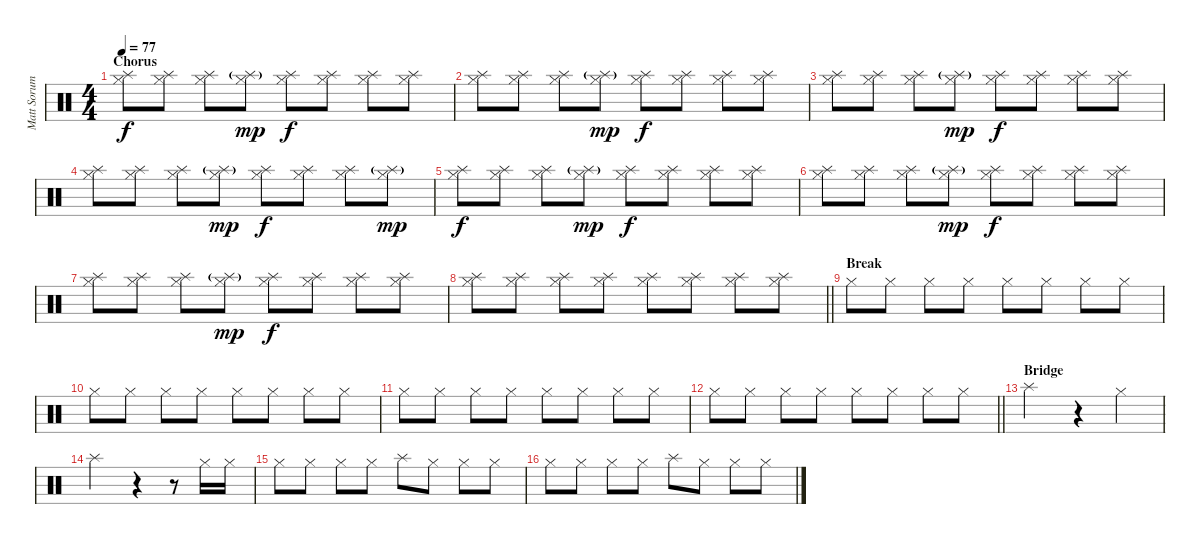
\track ("Matt Sorum (Drums)" "Matt Sorum") {instrument percussion}
\staff {score}
\articulation defaults
\ts (4 4)
\section ("" "Chorus")
\tempo 77
\clef neutral
\ks c
("Hi-Hat (closed)" "Splash (hit)").8{dy f} ("Hi-Hat (closed)" "Splash (hit)").8 ("Hi-Hat (closed)" "Splash (hit)").8 ("Hi-Hat (closed)" "Splash (hit)"{g}).8{dy mp} ("Hi-Hat (closed)" "Splash (hit)").8{dy f} ("Hi-Hat (closed)" "Splash (hit)").8 ("Hi-Hat (closed)" "Splash (hit)").8 ("Hi-Hat (closed)" "Splash (hit)").8 |
("Hi-Hat (closed)" "Splash (hit)").8 ("Hi-Hat (closed)" "Splash (hit)").8 ("Hi-Hat (closed)" "Splash (hit)").8 ("Hi-Hat (closed)" "Splash (hit)"{g}).8{dy mp} ("Hi-Hat (closed)" "Splash (hit)").8{dy f} ("Hi-Hat (closed)" "Splash (hit)").8 ("Hi-Hat (closed)" "Splash (hit)").8 ("Hi-Hat (closed)" "Splash (hit)").8 |
("Hi-Hat (closed)" "Splash (hit)").8 ("Hi-Hat (closed)" "Splash (hit)").8 ("Hi-Hat (closed)" "Splash (hit)").8 ("Hi-Hat (closed)" "Splash (hit)"{g}).8{dy mp} ("Hi-Hat (closed)" "Splash (hit)").8{dy f} ("Hi-Hat (closed)" "Splash (hit)").8 ("Hi-Hat (closed)" "Splash (hit)").8 ("Hi-Hat (closed)" "Splash (hit)").8 |
("Hi-Hat (closed)" "Splash (hit)").8 ("Hi-Hat (closed)" "Splash (hit)").8 ("Hi-Hat (closed)" "Splash (hit)").8 ("Hi-Hat (closed)" "Splash (hit)"{g}).8{dy mp} ("Hi-Hat (closed)" "Splash (hit)").8{dy f} ("Hi-Hat (closed)" "Splash (hit)").8 ("Hi-Hat (closed)" "Splash (hit)").8 ("Hi-Hat (closed)" "Splash (hit)"{g}).8{dy mp} |
("Hi-Hat (closed)" "Splash (hit)").8{dy f} ("Hi-Hat (closed)" "Splash (hit)").8 ("Hi-Hat (closed)" "Splash (hit)").8 ("Hi-Hat (closed)" "Splash (hit)"{g}).8{dy mp} ("Hi-Hat (closed)" "Splash (hit)").8{dy f} ("Hi-Hat (closed)" "Splash (hit)").8 ("Hi-Hat (closed)" "Splash (hit)").8 ("Hi-Hat (closed)" "Splash (hit)").8 |
("Hi-Hat (closed)" "Splash (hit)").8 ("Hi-Hat (closed)" "Splash (hit)").8 ("Hi-Hat (closed)" "Splash (hit)").8 ("Hi-Hat (closed)" "Splash (hit)"{g}).8{dy mp} ("Hi-Hat (closed)" "Splash (hit)").8{dy f} ("Hi-Hat (closed)" "Splash (hit)").8 ("Hi-Hat (closed)" "Splash (hit)").8 ("Hi-Hat (closed)" "Splash (hit)").8 |
("Hi-Hat (closed)" "Splash (hit)").8 ("Hi-Hat (closed)" "Splash (hit)").8 ("Hi-Hat (closed)" "Splash (hit)").8 ("Hi-Hat (closed)" "Splash (hit)"{g}).8{dy mp} ("Hi-Hat (closed)" "Splash (hit)").8{dy f} ("Hi-Hat (closed)" "Splash (hit)").8 ("Hi-Hat (closed)" "Splash (hit)").8 ("Hi-Hat (closed)" "Splash (hit)").8 |
\barLineRight lightlight
("Hi-Hat (closed)" "Splash (hit)").8 ("Hi-Hat (closed)" "Splash (hit)").8 ("Hi-Hat (closed)" "Splash (hit)").8 ("Hi-Hat (closed)" "Splash (hit)").8 ("Hi-Hat (closed)" "Splash (hit)").8 ("Hi-Hat (closed)" "Splash (hit)").8 ("Hi-Hat (closed)" "Splash (hit)").8 ("Hi-Hat (closed)" "Splash (hit)").8 |
\section ("" "Break")
"Hi-Hat (closed)".8 "Hi-Hat (closed)".8 "Hi-Hat (closed)".8 "Hi-Hat (closed)".8 "Hi-Hat (closed)".8 "Hi-Hat (closed)".8 "Hi-Hat (closed)".8 "Hi-Hat (closed)".8 |
"Hi-Hat (closed)".8 "Hi-Hat (closed)".8 "Hi-Hat (closed)".8 "Hi-Hat (closed)".8 "Hi-Hat (closed)".8 "Hi-Hat (closed)".8 "Hi-Hat (closed)".8 "Hi-Hat (closed)".8 |
"Hi-Hat (closed)".8 "Hi-Hat (closed)".8 "Hi-Hat (closed)".8 "Hi-Hat (closed)".8 "Hi-Hat (closed)".8 "Hi-Hat (closed)".8 "Hi-Hat (closed)".8 "Hi-Hat (closed)".8 |
\barLineRight lightlight "Hi-Hat (closed)".8 "Hi-Hat (closed)".8 "Hi-Hat (closed)".8 "Hi-Hat (closed)".8 "Hi-Hat (closed)".8 "Hi-Hat (closed)".8 "Hi-Hat (closed)".8 "Hi-Hat (closed)".8
|
\section ("" "Bridge")
"Splash (hit)".2 r.4 "Hi-Hat (closed)".4 |
"Splash (hit)".2 r.4 r.8 "Hi-Hat (closed)".16 "Hi-Hat (closed)".16 |
"Hi-Hat (closed)".8{volume 7} "Hi-Hat (closed)".8 "Hi-Hat (closed)".8 "Hi-Hat (closed)".8 "Splash (hit)".8 "Hi-Hat (closed)".8 "Hi-Hat (closed)".8 "Hi-Hat (closed)".8 |
"Hi-Hat (closed)".8 "Hi-Hat (closed)".8 "Hi-Hat (closed)".8 "Hi-Hat (closed)".8 "Splash (hit)".8 "Hi-Hat (closed)".8 "Hi-Hat (closed)".8 "Hi-Hat (closed)".8
